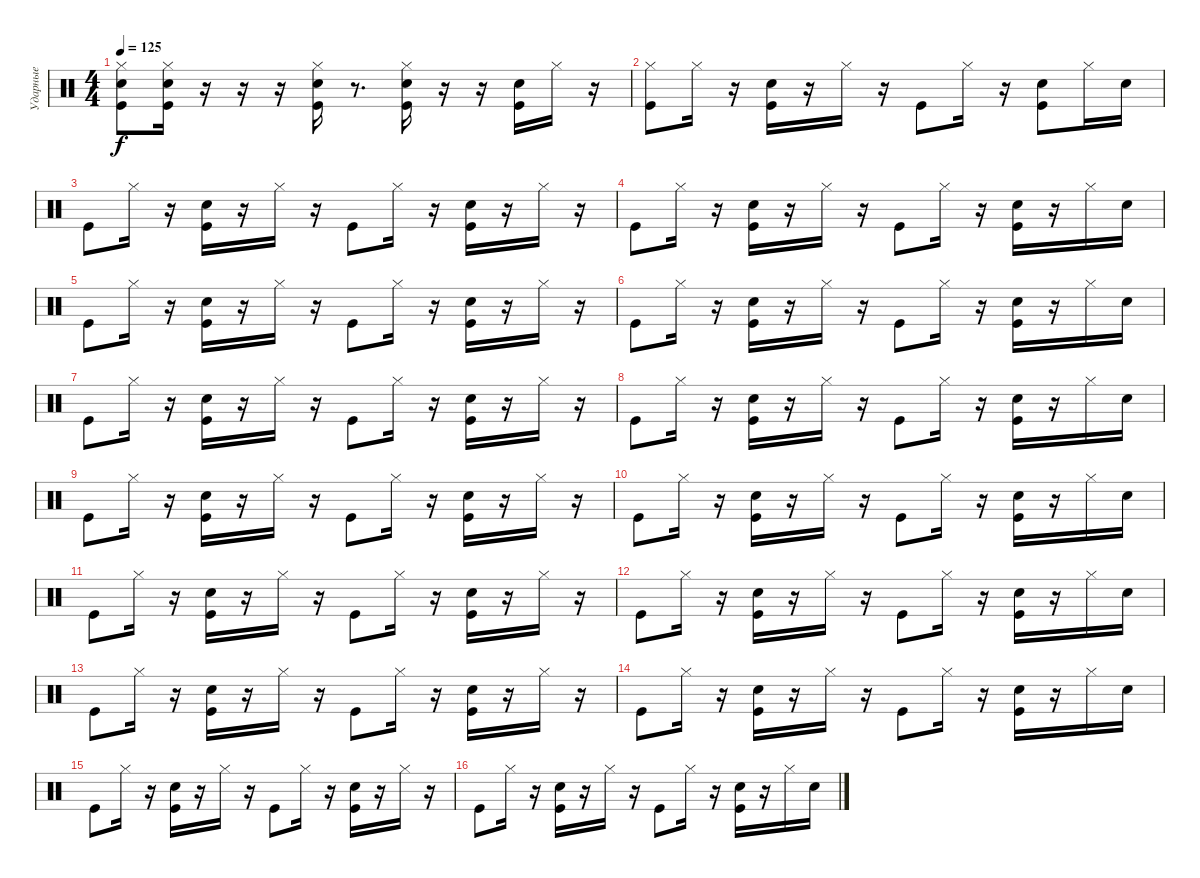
\track ("Ударные" "Ударные") {instrument percussion}
\staff {score}
\articulation defaults
\ts (4 4)
\tempo 125
\clef neutral
\ks c
("Hi-Hat (closed)" "Snare (hit) 2" "Kick (hit)").8{dy f} ("Hi-Hat (closed)" "Snare (hit) 2" "Kick (hit)").16 r.16 r.16 r.16 ("Hi-Hat (closed)" "Snare (hit) 2" "Kick (hit)").16 r.8{d} ("Hi-Hat (closed)" "Snare (hit) 2" "Kick (hit)").16 r.16 r.16 ("Snare (hit) 2" "Kick (hit)").16 "Hi-Hat (closed)".16 r.16 |
("Kick (hit)" "Hi-Hat (closed)").8 "Hi-Hat (closed)".16 r.16 ("Snare (hit) 2" "Kick (hit)").16 r.16 "Hi-Hat (closed)".16 r.16 "Kick (hit)".8 "Hi-Hat (closed)".16 r.16 ("Snare (hit) 2" "Kick (hit)").8 "Hi-Hat (closed)".16 "Snare (hit) 2".16 |
"Kick (hit)".8 "Hi-Hat (closed)".16 r.16 ("Snare (hit) 2" "Kick (hit)").16 r.16 "Hi-Hat (closed)".16 r.16 "Kick (hit)".8 "Hi-Hat (closed)".16 r.16 ("Snare (hit) 2" "Kick (hit)").16 r.16 "Hi-Hat (closed)".16 r.16 |
"Kick (hit)".8 "Hi-Hat (closed)".16 r.16 ("Snare (hit) 2" "Kick (hit)").16 r.16 "Hi-Hat (closed)".16 r.16 "Kick (hit)".8 "Hi-Hat (closed)".16 r.16 ("Snare (hit) 2" "Kick (hit)").16 r.16 "Hi-Hat (closed)".16 "Snare (hit) 2".16 |
"Kick (hit)".8 "Hi-Hat (closed)".16 r.16 ("Snare (hit) 2" "Kick (hit)").16 r.16 "Hi-Hat (closed)".16 r.16 "Kick (hit)".8 "Hi-Hat (closed)".16 r.16 ("Snare (hit) 2" "Kick (hit)").16 r.16 "Hi-Hat (closed)".16 r.16 |
"Kick (hit)".8 "Hi-Hat (closed)".16 r.16 ("Snare (hit) 2" "Kick (hit)").16 r.16 "Hi-Hat (closed)".16 r.16 "Kick (hit)".8 "Hi-Hat (closed)".16 r.16 ("Snare (hit) 2" "Kick (hit)").16 r.16 "Hi-Hat (closed)".16 "Snare (hit) 2".16 |
"Kick (hit)".8 "Hi-Hat (closed)".16 r.16 ("Snare (hit) 2" "Kick (hit)").16 r.16 "Hi-Hat (closed)".16 r.16 "Kick (hit)".8 "Hi-Hat (closed)".16 r.16 ("Snare (hit) 2" "Kick (hit)").16 r.16 "Hi-Hat (closed)".16 r.16 |
"Kick (hit)".8 "Hi-Hat (closed)".16 r.16 ("Snare (hit) 2" "Kick (hit)").16 r.16 "Hi-Hat (closed)".16 r.16 "Kick (hit)".8 "Hi-Hat (closed)".16 r.16 ("Snare (hit) 2" "Kick (hit)").16 r.16 "Hi-Hat (closed)".16 "Snare (hit) 2".16 |
"Kick (hit)".8 "Hi-Hat (closed)".16 r.16 ("Snare (hit) 2" "Kick (hit)").16 r.16 "Hi-Hat (closed)".16 r.16 "Kick (hit)".8 "Hi-Hat (closed)".16 r.16 ("Snare (hit) 2" "Kick (hit)").16 r.16 "Hi-Hat (closed)".16 r.16 |
"Kick (hit)".8 "Hi-Hat (closed)".16 r.16 ("Snare (hit) 2" "Kick (hit)").16 r.16 "Hi-Hat (closed)".16 r.16 "Kick (hit)".8 "Hi-Hat (closed)".16 r.16 ("Snare (hit) 2" "Kick (hit)").16 r.16 "Hi-Hat (closed)".16 "Snare (hit) 2".16 |
"Kick (hit)".8 "Hi-Hat (closed)".16 r.16 ("Snare (hit) 2" "Kick (hit)").16 r.16 "Hi-Hat (closed)".16 r.16 "Kick (hit)".8 "Hi-Hat (closed)".16 r.16 ("Snare (hit) 2" "Kick (hit)").16 r.16 "Hi-Hat (closed)".16 r.16 |
"Kick (hit)".8 "Hi-Hat (closed)".16 r.16 ("Snare (hit) 2" "Kick (hit)").16 r.16 "Hi-Hat (closed)".16 r.16 "Kick (hit)".8 "Hi-Hat (closed)".16 r.16 ("Snare (hit) 2" "Kick (hit)").16 r.16 "Hi-Hat (closed)".16 "Snare (hit) 2".16 |
"Kick (hit)".8 "Hi-Hat (closed)".16 r.16 ("Snare (hit) 2" "Kick (hit)").16 r.16 "Hi-Hat (closed)".16 r.16 "Kick (hit)".8 "Hi-Hat (closed)".16 r.16 ("Snare (hit) 2" "Kick (hit)").16 r.16 "Hi-Hat (closed)".16 r.16 |
"Kick (hit)".8 "Hi-Hat (closed)".16 r.16 ("Snare (hit) 2" "Kick (hit)").16 r.16 "Hi-Hat (closed)".16 r.16 "Kick (hit)".8 "Hi-Hat (closed)".16 r.16 ("Snare (hit) 2" "Kick (hit)").16 r.16 "Hi-Hat (closed)".16 "Snare (hit) 2".16 |
"Kick (hit)".8 "Hi-Hat (closed)".16 r.16 ("Snare (hit) 2" "Kick (hit)").16 r.16 "Hi-Hat (closed)".16 r.16 "Kick (hit)".8 "Hi-Hat (closed)".16 r.16 ("Snare (hit) 2" "Kick (hit)").16 r.16 "Hi-Hat (closed)".16 r.16 |
"Kick (hit)".8 "Hi-Hat (closed)".16 r.16 ("Snare (hit) 2" "Kick (hit)").16 r.16 "Hi-Hat (closed)".16 r.16 "Kick (hit)".8 "Hi-Hat (closed)".16 r.16 ("Snare (hit) 2" "Kick (hit)").16 r.16 "Hi-Hat (closed)".16 "Snare (hit) 2".16
